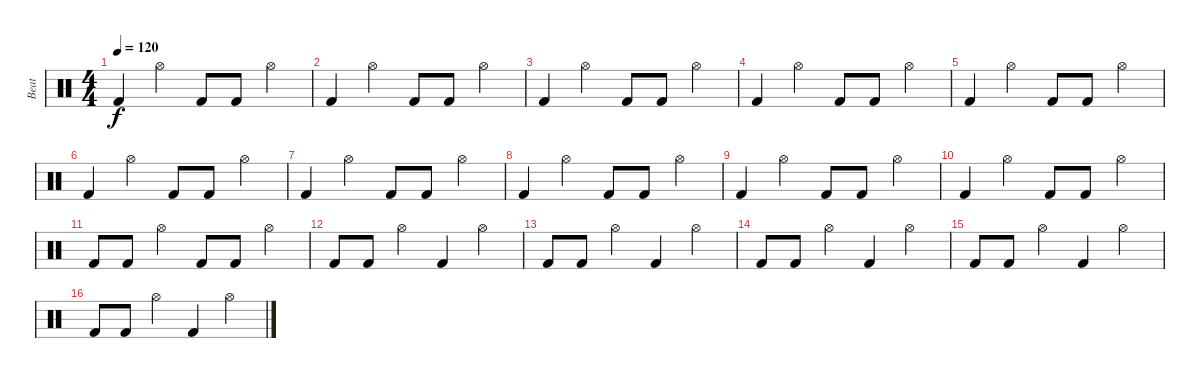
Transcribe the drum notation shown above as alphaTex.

\track ("Beat" "Beat") {instrument percussion}
\staff {score}
\articulation defaults
\ts (4 4)
\tempo 120
\clef neutral
\ks c "Kick (hit) 2".4{dy f} "Hi-Hat (open)".4 "Kick (hit) 2".8 "Kick (hit) 2".8 "Hi-Hat (open)".4
|
"Kick (hit) 2".4 "Hi-Hat (open)".4 "Kick (hit) 2".8 "Kick (hit) 2".8 "Hi-Hat (open)".4 |
"Kick (hit) 2".4 "Hi-Hat (open)".4 "Kick (hit) 2".8 "Kick (hit) 2".8 "Hi-Hat (open)".4 |
"Kick (hit) 2".4 "Hi-Hat (open)".4 "Kick (hit) 2".8 "Kick (hit) 2".8 "Hi-Hat (open)".4 |
"Kick (hit) 2".4 "Hi-Hat (open)".4 "Kick (hit) 2".8 "Kick (hit) 2".8 "Hi-Hat (open)".4 |
"Kick (hit) 2".4 "Hi-Hat (open)".4 "Kick (hit) 2".8 "Kick (hit) 2".8 "Hi-Hat (open)".4 |
"Kick (hit) 2".4 "Hi-Hat (open)".4 "Kick (hit) 2".8 "Kick (hit) 2".8 "Hi-Hat (open)".4 |
"Kick (hit) 2".4 "Hi-Hat (open)".4 "Kick (hit) 2".8 "Kick (hit) 2".8 "Hi-Hat (open)".4 |
"Kick (hit) 2".4 "Hi-Hat (open)".4 "Kick (hit) 2".8 "Kick (hit) 2".8 "Hi-Hat (open)".4 |
"Kick (hit) 2".4 "Hi-Hat (open)".4 "Kick (hit) 2".8 "Kick (hit) 2".8 "Hi-Hat (open)".4 |
"Kick (hit) 2".8 "Kick (hit) 2".8 "Hi-Hat (open)".4 "Kick (hit) 2".8 "Kick (hit) 2".8 "Hi-Hat (open)".4 |
"Kick (hit) 2".8 "Kick (hit) 2".8 "Hi-Hat (open)".4 "Kick (hit) 2".4 "Hi-Hat (open)".4 |
"Kick (hit) 2".8 "Kick (hit) 2".8 "Hi-Hat (open)".4 "Kick (hit) 2".4 "Hi-Hat (open)".4 |
"Kick (hit) 2".8 "Kick (hit) 2".8 "Hi-Hat (open)".4 "Kick (hit) 2".4 "Hi-Hat (open)".4 |
"Kick (hit) 2".8 "Kick (hit) 2".8 "Hi-Hat (open)".4 "Kick (hit) 2".4 "Hi-Hat (open)".4 |
"Kick (hit) 2".8 "Kick (hit) 2".8 "Hi-Hat (open)".4 "Kick (hit) 2".4 "Hi-Hat (open)".4
